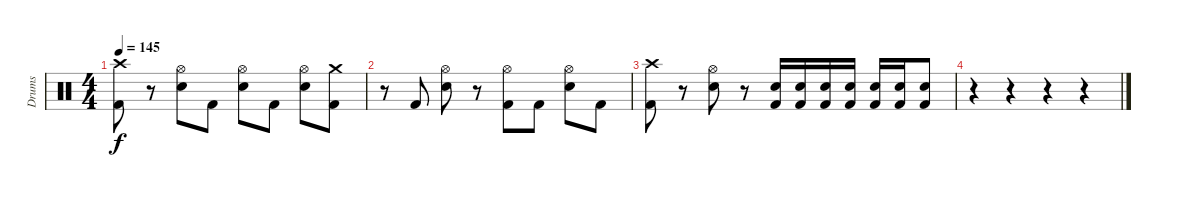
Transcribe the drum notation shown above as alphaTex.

\track ("Drums" "Drums") {instrument percussion}
\staff {score}
\articulation defaults
\ts (4 4)
\tempo 145
\clef neutral
\ks c
("Crash high (hit)" "Kick (hit) 2").8{dy f} r.8 ("Hi-Hat (open)" "Snare (hit) 2").8 "Kick (hit) 2".8 ("Hi-Hat (open)" "Snare (hit) 2").8 "Kick (hit) 2".8 ("Hi-Hat (open)" "Snare (hit) 2").8 ("Crash medium (hit)" "Kick (hit) 2").8 |
r.8 "Kick (hit) 2".8 ("Hi-Hat (open)" "Snare (hit) 2").8 r.8 ("Hi-Hat (open)" "Kick (hit) 2").8 "Kick (hit) 2".8 ("Hi-Hat (open)" "Snare (hit) 2").8 "Kick (hit) 2".8 |
("Crash high (hit)" "Kick (hit) 2").8 r.8 ("Hi-Hat (open)" "Snare (hit) 2").8 r.8 ("Snare (hit) 2" "Kick (hit) 2").16 ("Snare (hit) 2" "Kick (hit) 2").16 ("Snare (hit) 2" "Kick (hit) 2").16 ("Snare (hit) 2" "Kick (hit) 2").16 ("Snare (hit) 2" "Kick (hit) 2").16 ("Snare (hit) 2" "Kick (hit) 2").16 ("Snare (hit) 2" "Kick (hit) 2").8 |
r.4 r.4 r.4 r.4
